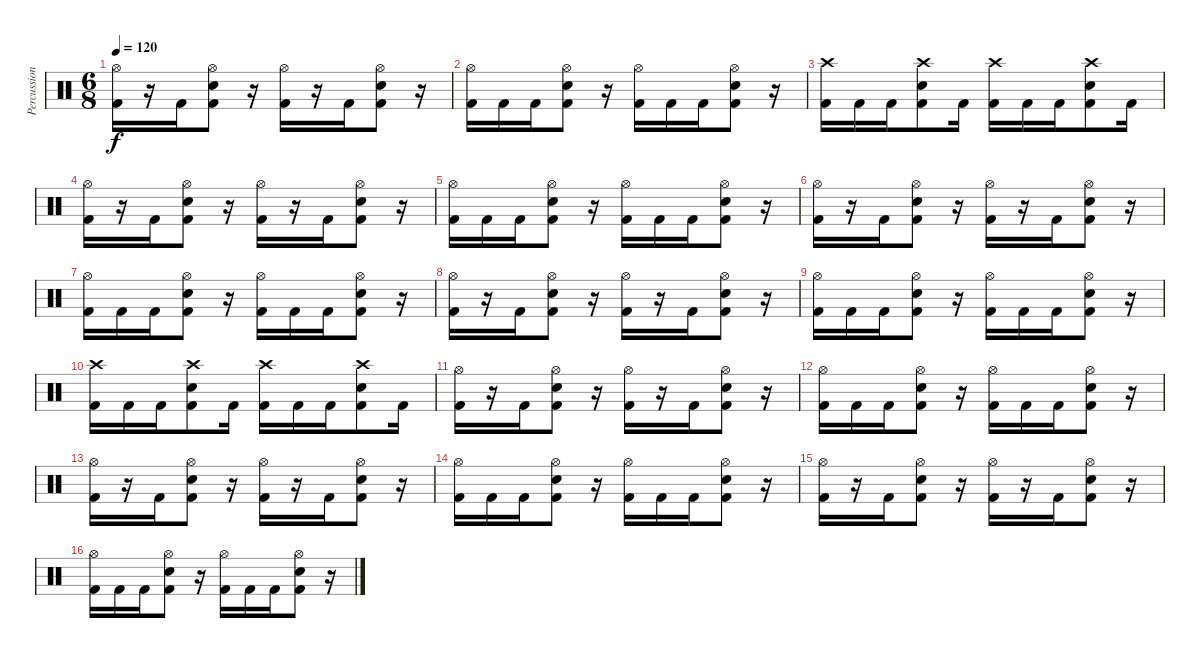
\track ("Percussion" "Percussion") {instrument percussion}
\staff {score}
\articulation defaults
\ts (6 8)
\tempo 120
\clef neutral
\ks c
("Hi-Hat (open)" "Kick (hit) 2").16{dy f} r.16 "Kick (hit) 2".16 ("Hi-Hat (open)" "Snare (hit) 2" "Kick (hit) 2").8 r.16 ("Hi-Hat (open)" "Kick (hit) 2").16 r.16 "Kick (hit) 2".16 ("Hi-Hat (open)" "Snare (hit) 2" "Kick (hit) 2").8 r.16 |
("Hi-Hat (open)" "Kick (hit) 2").16 "Kick (hit) 2".16 "Kick (hit) 2".16 ("Hi-Hat (open)" "Snare (hit) 2" "Kick (hit) 2").8 r.16 ("Hi-Hat (open)" "Kick (hit) 2").16 "Kick (hit) 2".16 "Kick (hit) 2".16 ("Hi-Hat (open)" "Snare (hit) 2" "Kick (hit) 2").8 r.16 |
("Crash high (hit)" "Kick (hit) 2").16 "Kick (hit) 2".16 "Kick (hit) 2".16 ("Crash high (hit)" "Snare (hit) 2" "Kick (hit) 2").8 "Kick (hit) 2".16 ("Crash high (hit)" "Kick (hit) 2").16 "Kick (hit) 2".16 "Kick (hit) 2".16 ("Crash high (hit)" "Snare (hit) 2" "Kick (hit) 2").8 "Kick (hit) 2".16 |
("Hi-Hat (open)" "Kick (hit) 2").16 r.16 "Kick (hit) 2".16 ("Hi-Hat (open)" "Snare (hit) 2" "Kick (hit) 2").8 r.16 ("Hi-Hat (open)" "Kick (hit) 2").16 r.16 "Kick (hit) 2".16 ("Hi-Hat (open)" "Snare (hit) 2" "Kick (hit) 2").8 r.16 |
("Hi-Hat (open)" "Kick (hit) 2").16 "Kick (hit) 2".16 "Kick (hit) 2".16 ("Hi-Hat (open)" "Snare (hit) 2" "Kick (hit) 2").8 r.16 ("Hi-Hat (open)" "Kick (hit) 2").16 "Kick (hit) 2".16 "Kick (hit) 2".16 ("Hi-Hat (open)" "Snare (hit) 2" "Kick (hit) 2").8 r.16 |
("Hi-Hat (open)" "Kick (hit) 2").16 r.16 "Kick (hit) 2".16 ("Hi-Hat (open)" "Snare (hit) 2" "Kick (hit) 2").8 r.16 ("Hi-Hat (open)" "Kick (hit) 2").16 r.16 "Kick (hit) 2".16 ("Hi-Hat (open)" "Snare (hit) 2" "Kick (hit) 2").8 r.16 |
("Hi-Hat (open)" "Kick (hit) 2").16 "Kick (hit) 2".16 "Kick (hit) 2".16 ("Hi-Hat (open)" "Snare (hit) 2" "Kick (hit) 2").8 r.16 ("Hi-Hat (open)" "Kick (hit) 2").16 "Kick (hit) 2".16 "Kick (hit) 2".16 ("Hi-Hat (open)" "Snare (hit) 2" "Kick (hit) 2").8 r.16 |
("Hi-Hat (open)" "Kick (hit) 2").16 r.16 "Kick (hit) 2".16 ("Hi-Hat (open)" "Snare (hit) 2" "Kick (hit) 2").8 r.16 ("Hi-Hat (open)" "Kick (hit) 2").16 r.16 "Kick (hit) 2".16 ("Hi-Hat (open)" "Snare (hit) 2" "Kick (hit) 2").8 r.16 |
("Hi-Hat (open)" "Kick (hit) 2").16 "Kick (hit) 2".16 "Kick (hit) 2".16 ("Hi-Hat (open)" "Snare (hit) 2" "Kick (hit) 2").8 r.16 ("Hi-Hat (open)" "Kick (hit) 2").16 "Kick (hit) 2".16 "Kick (hit) 2".16 ("Hi-Hat (open)" "Snare (hit) 2" "Kick (hit) 2").8 r.16 |
("Crash high (hit)" "Kick (hit) 2").16 "Kick (hit) 2".16 "Kick (hit) 2".16 ("Crash high (hit)" "Snare (hit) 2" "Kick (hit) 2").8 "Kick (hit) 2".16 ("Crash high (hit)" "Kick (hit) 2").16 "Kick (hit) 2".16 "Kick (hit) 2".16 ("Crash high (hit)" "Snare (hit) 2" "Kick (hit) 2").8 "Kick (hit) 2".16 |
("Hi-Hat (open)" "Kick (hit) 2").16 r.16 "Kick (hit) 2".16 ("Hi-Hat (open)" "Snare (hit) 2" "Kick (hit) 2").8 r.16 ("Hi-Hat (open)" "Kick (hit) 2").16 r.16 "Kick (hit) 2".16 ("Hi-Hat (open)" "Snare (hit) 2" "Kick (hit) 2").8 r.16 |
("Hi-Hat (open)" "Kick (hit) 2").16 "Kick (hit) 2".16 "Kick (hit) 2".16 ("Hi-Hat (open)" "Snare (hit) 2" "Kick (hit) 2").8 r.16 ("Hi-Hat (open)" "Kick (hit) 2").16 "Kick (hit) 2".16 "Kick (hit) 2".16 ("Hi-Hat (open)" "Snare (hit) 2" "Kick (hit) 2").8 r.16 |
("Hi-Hat (open)" "Kick (hit) 2").16 r.16 "Kick (hit) 2".16 ("Hi-Hat (open)" "Snare (hit) 2" "Kick (hit) 2").8 r.16 ("Hi-Hat (open)" "Kick (hit) 2").16 r.16 "Kick (hit) 2".16 ("Hi-Hat (open)" "Snare (hit) 2" "Kick (hit) 2").8 r.16 |
("Hi-Hat (open)" "Kick (hit) 2").16 "Kick (hit) 2".16 "Kick (hit) 2".16 ("Hi-Hat (open)" "Snare (hit) 2" "Kick (hit) 2").8 r.16 ("Hi-Hat (open)" "Kick (hit) 2").16 "Kick (hit) 2".16 "Kick (hit) 2".16 ("Hi-Hat (open)" "Snare (hit) 2" "Kick (hit) 2").8 r.16 |
("Hi-Hat (open)" "Kick (hit) 2").16 r.16 "Kick (hit) 2".16 ("Hi-Hat (open)" "Snare (hit) 2" "Kick (hit) 2").8 r.16 ("Hi-Hat (open)" "Kick (hit) 2").16 r.16 "Kick (hit) 2".16 ("Hi-Hat (open)" "Snare (hit) 2" "Kick (hit) 2").8 r.16 |
("Hi-Hat (open)" "Kick (hit) 2").16 "Kick (hit) 2".16 "Kick (hit) 2".16 ("Hi-Hat (open)" "Snare (hit) 2" "Kick (hit) 2").8 r.16 ("Hi-Hat (open)" "Kick (hit) 2").16 "Kick (hit) 2".16 "Kick (hit) 2".16 ("Hi-Hat (open)" "Snare (hit) 2" "Kick (hit) 2").8 r.16
